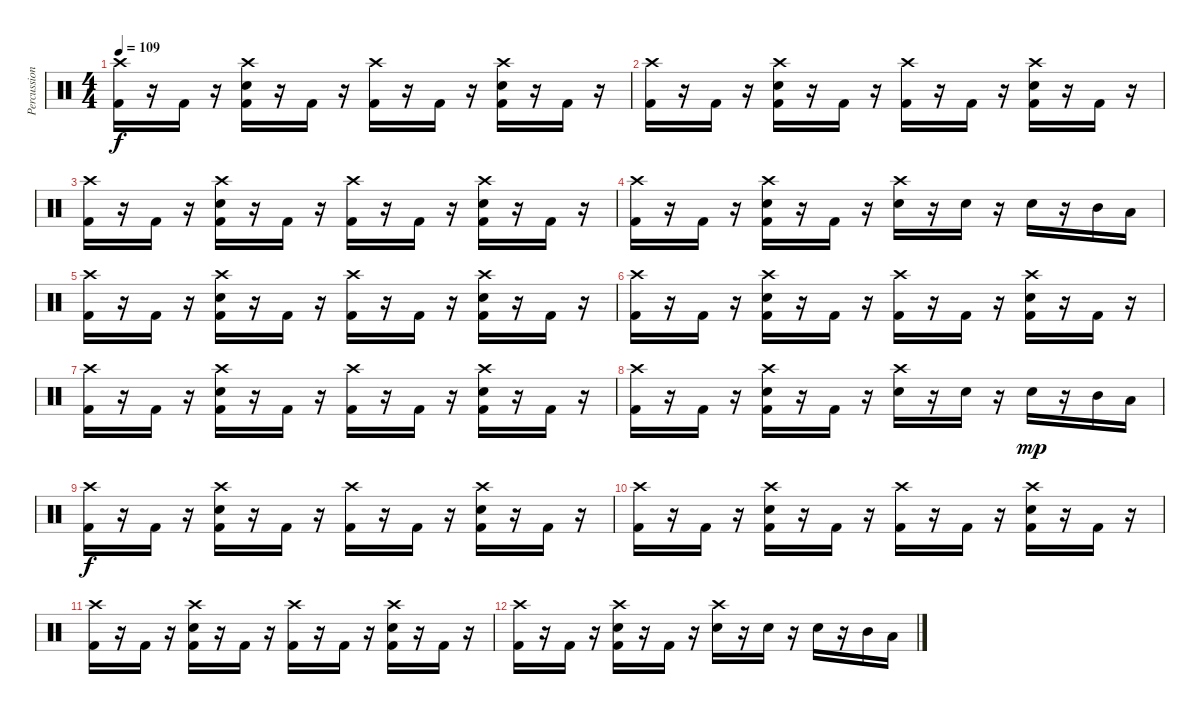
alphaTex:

\track ("Percussion" "Percussion") {instrument percussion}
\staff {score}
\articulation defaults
\ts (4 4)
\tempo 109
\clef neutral
\ks c
("Crash high (hit)" "Kick (hit) 2").16{dy f} r.16 "Kick (hit) 2".16 r.16 ("Crash high (hit)" "Snare (hit) 2" "Kick (hit) 2").16 r.16 "Kick (hit) 2".16 r.16 ("Crash high (hit)" "Kick (hit) 2").16 r.16 "Kick (hit) 2".16 r.16 ("Crash high (hit)" "Snare (hit) 2" "Kick (hit) 2").16 r.16 "Kick (hit) 2".16 r.16 |
("Crash high (hit)" "Kick (hit) 2").16 r.16 "Kick (hit) 2".16 r.16 ("Crash high (hit)" "Snare (hit) 2" "Kick (hit) 2").16 r.16 "Kick (hit) 2".16 r.16 ("Crash high (hit)" "Kick (hit) 2").16 r.16 "Kick (hit) 2".16 r.16 ("Crash high (hit)" "Snare (hit) 2" "Kick (hit) 2").16 r.16 "Kick (hit) 2".16 r.16 |
("Crash high (hit)" "Kick (hit) 2").16 r.16 "Kick (hit) 2".16 r.16 ("Crash high (hit)" "Snare (hit) 2" "Kick (hit) 2").16 r.16 "Kick (hit) 2".16 r.16 ("Crash high (hit)" "Kick (hit) 2").16 r.16 "Kick (hit) 2".16 r.16 ("Crash high (hit)" "Snare (hit) 2" "Kick (hit) 2").16 r.16 "Kick (hit) 2".16 r.16 |
("Crash high (hit)" "Kick (hit) 2").16 r.16 "Kick (hit) 2".16 r.16 ("Crash high (hit)" "Snare (hit) 2" "Kick (hit) 2").16 r.16 "Kick (hit) 2".16 r.16 ("Crash high (hit)" "Snare (hit) 2").16 r.16 "Snare (hit) 2".16 r.16 "Snare (hit) 2".16 r.16 "Mid Tom (hit)".16 "Low Tom (hit)".16 |
("Crash high (hit)" "Kick (hit) 2").16 r.16 "Kick (hit) 2".16 r.16 ("Crash high (hit)" "Snare (hit) 2" "Kick (hit) 2").16 r.16 "Kick (hit) 2".16 r.16 ("Crash high (hit)" "Kick (hit) 2").16 r.16 "Kick (hit) 2".16 r.16 ("Crash high (hit)" "Snare (hit) 2" "Kick (hit) 2").16 r.16 "Kick (hit) 2".16 r.16 |
("Crash high (hit)" "Kick (hit) 2").16 r.16 "Kick (hit) 2".16 r.16 ("Crash high (hit)" "Snare (hit) 2" "Kick (hit) 2").16 r.16 "Kick (hit) 2".16 r.16 ("Crash high (hit)" "Kick (hit) 2").16 r.16 "Kick (hit) 2".16 r.16 ("Crash high (hit)" "Snare (hit) 2" "Kick (hit) 2").16 r.16 "Kick (hit) 2".16 r.16 |
("Crash high (hit)" "Kick (hit) 2").16 r.16 "Kick (hit) 2".16 r.16 ("Crash high (hit)" "Snare (hit) 2" "Kick (hit) 2").16 r.16 "Kick (hit) 2".16 r.16 ("Crash high (hit)" "Kick (hit) 2").16 r.16 "Kick (hit) 2".16 r.16 ("Crash high (hit)" "Snare (hit) 2" "Kick (hit) 2").16 r.16 "Kick (hit) 2".16 r.16 |
("Crash high (hit)" "Kick (hit) 2").16 r.16 "Kick (hit) 2".16 r.16 ("Crash high (hit)" "Snare (hit) 2" "Kick (hit) 2").16 r.16 "Kick (hit) 2".16 r.16 ("Crash high (hit)" "Snare (hit) 2").16 r.16 "Snare (hit) 2".16 r.16 "Snare (hit) 2".16{dy mp} r.16 "Mid Tom (hit)".16 "Low Tom (hit)".16 |
("Crash high (hit)" "Kick (hit) 2").16{dy f} r.16 "Kick (hit) 2".16 r.16 ("Crash high (hit)" "Snare (hit) 2" "Kick (hit) 2").16 r.16 "Kick (hit) 2".16 r.16 ("Crash high (hit)" "Kick (hit) 2").16 r.16 "Kick (hit) 2".16 r.16 ("Crash high (hit)" "Snare (hit) 2" "Kick (hit) 2").16 r.16 "Kick (hit) 2".16 r.16 |
("Crash high (hit)" "Kick (hit) 2").16 r.16 "Kick (hit) 2".16 r.16 ("Crash high (hit)" "Snare (hit) 2" "Kick (hit) 2").16 r.16 "Kick (hit) 2".16 r.16 ("Crash high (hit)" "Kick (hit) 2").16 r.16 "Kick (hit) 2".16 r.16 ("Crash high (hit)" "Snare (hit) 2" "Kick (hit) 2").16 r.16 "Kick (hit) 2".16 r.16 |
("Crash high (hit)" "Kick (hit) 2").16 r.16 "Kick (hit) 2".16 r.16 ("Crash high (hit)" "Snare (hit) 2" "Kick (hit) 2").16 r.16 "Kick (hit) 2".16 r.16 ("Crash high (hit)" "Kick (hit) 2").16 r.16 "Kick (hit) 2".16 r.16 ("Crash high (hit)" "Snare (hit) 2" "Kick (hit) 2").16 r.16 "Kick (hit) 2".16 r.16 |
("Crash high (hit)" "Kick (hit) 2").16 r.16 "Kick (hit) 2".16 r.16 ("Crash high (hit)" "Snare (hit) 2" "Kick (hit) 2").16 r.16 "Kick (hit) 2".16 r.16 ("Crash high (hit)" "Snare (hit) 2").16 r.16 "Snare (hit) 2".16 r.16 "Snare (hit) 2".16 r.16 "Mid Tom (hit)".16 "Low Tom (hit)".16
